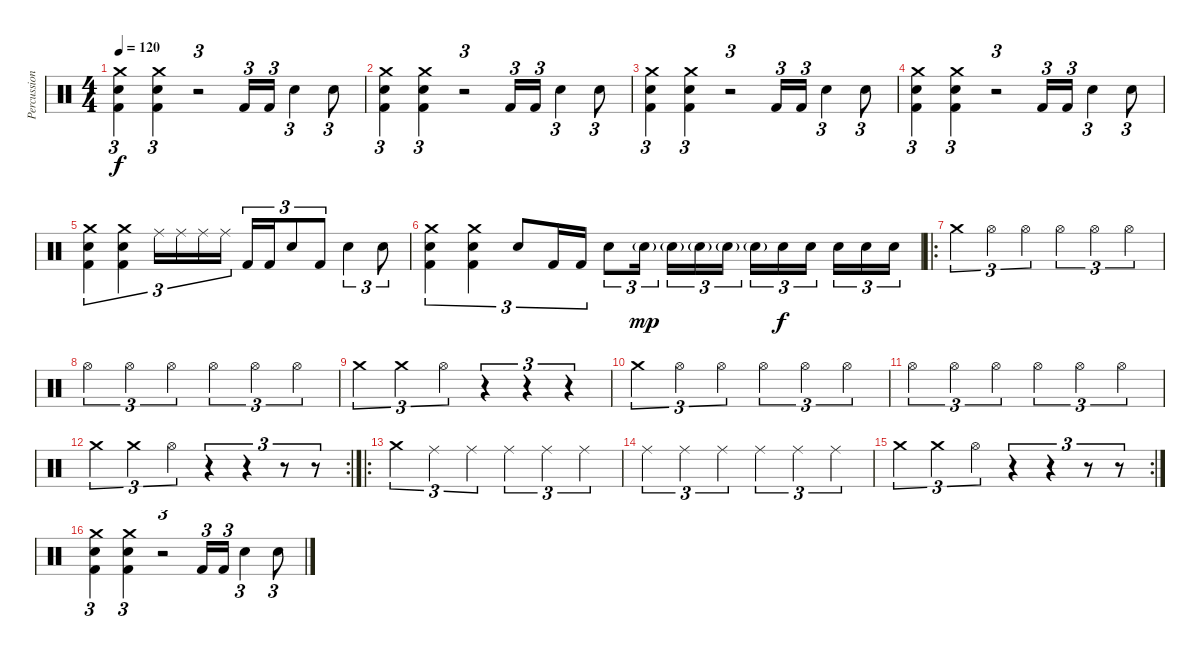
\track ("Percussion" "Percussion") {instrument percussion}
\staff {score}
\articulation defaults
\ts (4 4)
\tempo 120
\clef neutral
\ks c
("Crash medium (hit)" "Electric Snare (hit)" "Kick (hit) 2").4{tu (3 2) dy f} ("Crash medium (hit)" "Electric Snare (hit)" "Kick (hit) 2").4{tu (3 2)} r.2{tu (3 2)} "Kick (hit) 2".16{tu (3 2)} "Kick (hit) 2".16{tu (3 2)} "Electric Snare (hit)".4{tu (3 2)} "Electric Snare (hit)".8{tu (3 2)} |
("Crash medium (hit)" "Electric Snare (hit)" "Kick (hit) 2").4{tu (3 2)} ("Crash medium (hit)" "Electric Snare (hit)" "Kick (hit) 2").4{tu (3 2)} r.2{tu (3 2)} "Kick (hit) 2".16{tu (3 2)} "Kick (hit) 2".16{tu (3 2)} "Electric Snare (hit)".4{tu (3 2)} "Electric Snare (hit)".8{tu (3 2)} |
("Crash medium (hit)" "Electric Snare (hit)" "Kick (hit) 2").4{tu (3 2)} ("Crash medium (hit)" "Electric Snare (hit)" "Kick (hit) 2").4{tu (3 2)} r.2{tu (3 2)} "Kick (hit) 2".16{tu (3 2)} "Kick (hit) 2".16{tu (3 2)} "Electric Snare (hit)".4{tu (3 2)} "Electric Snare (hit)".8{tu (3 2)} |
("Crash medium (hit)" "Electric Snare (hit)" "Kick (hit) 2").4{tu (3 2)} ("Crash medium (hit)" "Electric Snare (hit)" "Kick (hit) 2").4{tu (3 2)} r.2{tu (3 2)} "Kick (hit) 2".16{tu (3 2)} "Kick (hit) 2".16{tu (3 2)} "Electric Snare (hit)".4{tu (3 2)} "Electric Snare (hit)".8{tu (3 2)} |
("Crash medium (hit)" "Electric Snare (hit)" "Kick (hit) 2").4{tu (3 2)} ("Crash medium (hit)" "Electric Snare (hit)" "Kick (hit) 2").4{tu (3 2)} "Ride (middle)".16{tu (3 2)} "Ride (middle)".16{tu (3 2)} "Ride (middle)".16{tu (3 2)} "Ride (middle)".16{tu (3 2)} "Kick (hit) 2".16{tu (3 2)} "Kick (hit) 2".16{tu (3 2)} "Electric Snare (hit)".8{tu (3 2)} "Kick (hit) 2".8{tu (3 2)} "Electric Snare (hit)".4{tu (3 2)} "Electric Snare (hit)".8{tu (3 2)} |
("Crash medium (hit)" "Electric Snare (hit)" "Kick (hit) 2").4{tu (3 2)} ("Crash medium (hit)" "Electric Snare (hit)" "Kick (hit) 2").4{tu (3 2)} "Electric Snare (hit)".8{tu (3 2)} "Kick (hit) 2".16{tu (3 2)} "Kick (hit) 2".16{tu (3 2)} "Electric Snare (hit)".8{tu (3 2)} "Electric Snare (hit)"{g}.16{tu (3 2) dy mp} "Electric Snare (hit)"{g}.16{tu (3 2)} "Electric Snare (hit)"{g}.16{tu (3 2)} "Electric Snare (hit)"{g}.16{tu (3 2)} "Electric Snare (hit)"{g}.16{tu (3 2)} "Electric Snare (hit)".16{tu (3 2) dy f} "Electric Snare (hit)".16{tu (3 2)} "Electric Snare (hit)".16{tu (3 2)} "Electric Snare (hit)".16{tu (3 2)} "Electric Snare (hit)".16{tu (3 2)} |
\ro "Crash medium (hit)".4{tu (3 2)} "Hi-Hat (open)".4{tu (3 2)} "Hi-Hat (open)".4{tu (3 2)} "Hi-Hat (open)".4{tu (3 2)} "Hi-Hat (open)".4{tu (3 2)} "Hi-Hat (open)".4{tu (3 2)}
|
"Hi-Hat (open)".4{tu (3 2)} "Hi-Hat (open)".4{tu (3 2)} "Hi-Hat (open)".4{tu (3 2)} "Hi-Hat (open)".4{tu (3 2)} "Hi-Hat (open)".4{tu (3 2)} "Hi-Hat (open)".4{tu (3 2)} |
"Crash medium (hit)".4{tu (3 2)} "Crash medium (hit)".4{tu (3 2)} "Hi-Hat (open)".4{tu (3 2)} r.4{tu (3 2)} r.4{tu (3 2)} r.4{tu (3 2)} |
"Crash medium (hit)".4{tu (3 2)} "Hi-Hat (open)".4{tu (3 2)} "Hi-Hat (open)".4{tu (3 2)} "Hi-Hat (open)".4{tu (3 2)} "Hi-Hat (open)".4{tu (3 2)} "Hi-Hat (open)".4{tu (3 2)} |
"Hi-Hat (open)".4{tu (3 2)} "Hi-Hat (open)".4{tu (3 2)} "Hi-Hat (open)".4{tu (3 2)} "Hi-Hat (open)".4{tu (3 2)} "Hi-Hat (open)".4{tu (3 2)} "Hi-Hat (open)".4{tu (3 2)} |
\rc 2 "Crash medium (hit)".4{tu (3 2)} "Crash medium (hit)".4{tu (3 2)} "Hi-Hat (open)".4{tu (3 2)}
r.4{tu (3 2)} r.4{tu (3 2)} r.8{tu (3 2)} r.8{tu (3 2)} |
\ro "Crash medium (hit)".4{tu (3 2)} "Ride (middle)".4{tu (3 2)} "Ride (middle)".4{tu (3 2)} "Ride (middle)".4{tu (3 2)} "Ride (middle)".4{tu (3 2)} "Ride (middle)".4{tu (3 2)}
|
"Ride (middle)".4{tu (3 2)} "Ride (middle)".4{tu (3 2)} "Ride (middle)".4{tu (3 2)} "Ride (middle)".4{tu (3 2)} "Ride (middle)".4{tu (3 2)} "Ride (middle)".4{tu (3 2)} |
\rc 2 "Crash medium (hit)".4{tu (3 2)} "Crash medium (hit)".4{tu (3 2)} "Hi-Hat (open)".4{tu (3 2)}
r.4{tu (3 2)} r.4{tu (3 2)} r.8{tu (3 2)} r.8{tu (3 2)} |
("Crash medium (hit)" "Electric Snare (hit)" "Kick (hit) 2").4{tu (3 2)} ("Crash medium (hit)" "Electric Snare (hit)" "Kick (hit) 2").4{tu (3 2)} r.2{tu (3 2)} "Kick (hit) 2".16{tu (3 2)} "Kick (hit) 2".16{tu (3 2)} "Electric Snare (hit)".4{tu (3 2)} "Electric Snare (hit)".8{tu (3 2)}
